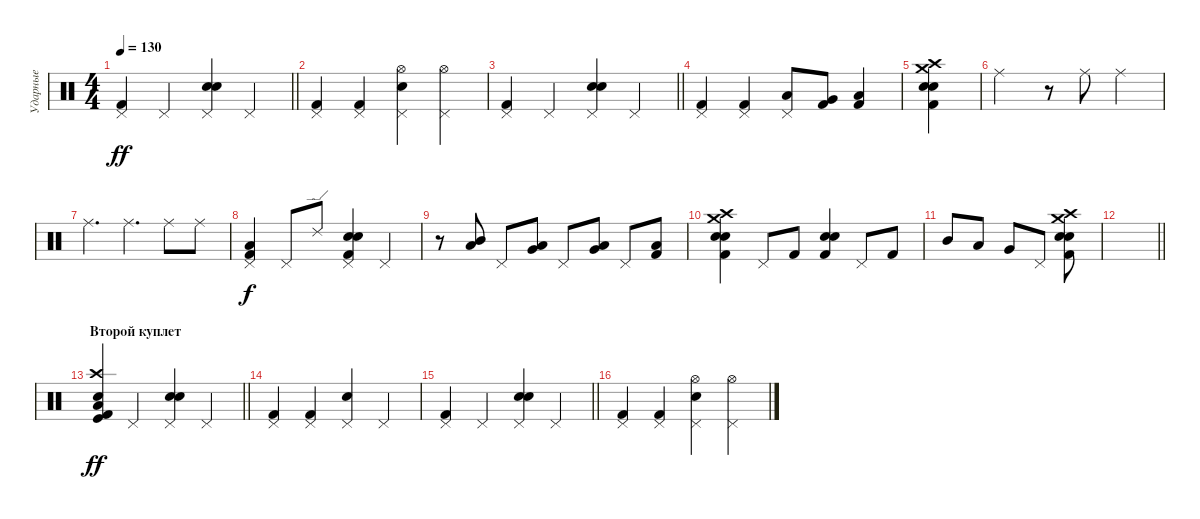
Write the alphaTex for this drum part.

\track ("Ударные" "Ударные") {instrument percussion}
\staff {score}
\articulation defaults
\ts (4 4)
\tempo 130
\clef neutral
\barLineRight lightlight
\ks c
("Kick (hit) 2" "Pedal Hi-Hat (hit)").4{dy ff} "Pedal Hi-Hat (hit)".4 ("Pedal Hi-Hat (hit)" "Snare (hit) 2" "Electric Snare (hit)").4 "Pedal Hi-Hat (hit)".4 |
("Kick (hit) 2" "Pedal Hi-Hat (hit)").4 ("Kick (hit) 2" "Pedal Hi-Hat (hit)").4 ("Pedal Hi-Hat (hit)" "Electric Snare (hit)" "Hi-Hat (open)").4 ("Pedal Hi-Hat (hit)" "Hi-Hat (open)").4 |
\barLineRight lightlight
("Kick (hit) 2" "Pedal Hi-Hat (hit)").4 "Pedal Hi-Hat (hit)".4 ("Pedal Hi-Hat (hit)" "Snare (hit) 2" "Electric Snare (hit)").4 "Pedal Hi-Hat (hit)".4 |
("Kick (hit) 2" "Pedal Hi-Hat (hit)").4 ("Kick (hit) 2" "Pedal Hi-Hat (hit)").4 ("Pedal Hi-Hat (hit)" "Low Tom (hit)").8 ("Kick (hit) 2" "Very Low Tom (hit)").8 ("Kick (hit) 2" "Low Floor Tom (hit)").4 |
("Crash high (hit)" "Kick (hit) 2" "Electric Snare (hit)" "Snare (hit) 2" "Crash medium (hit)").4 |
"Ride (middle)".2 r.8 "Ride (middle)".8 "Ride (middle)".4 |
"Ride (middle)".4{d} "Ride (middle)".4{d} "Ride (middle)".8 "Ride (middle)".8 |
("Low Floor Tom (hit)" "Kick (hit) 2" "Pedal Hi-Hat (hit)").4{dy f} "Pedal Hi-Hat (hit)".8 "Ride (edge) 2".8 ("Electric Snare (hit)" "Snare (hit) 2" "Kick (hit) 2" "Pedal Hi-Hat (hit)").4 "Pedal Hi-Hat (hit)".4 |
r.8 ("Mid Tom (hit)" "Low Tom (hit)").8 "Pedal Hi-Hat (hit)".8 ("Low Tom (hit)" "Very Low Tom (hit)").8 "Pedal Hi-Hat (hit)".8 ("Very Low Tom (hit)" "Low Floor Tom (hit)").8 "Pedal Hi-Hat (hit)".8 ("Kick (hit) 2" "Low Floor Tom (hit)").8 |
("Crash high (hit)" "Electric Snare (hit)" "Snare (hit) 2" "Kick (hit) 2" "Crash medium (hit)").4 "Pedal Hi-Hat (hit)".8 "Kick (hit) 2".8 ("Electric Snare (hit)" "Snare (hit) 2" "Kick (hit) 2").4 "Pedal Hi-Hat (hit)".8 "Kick (hit) 2".8 |
"Mid Tom (hit)".8 "Low Tom (hit)".8 "Very Low Tom (hit)".8 "Pedal Hi-Hat (hit)".8 ("Electric Snare (hit)" "Snare (hit) 2" "Kick (hit) 2" "Crash high (hit)" "Crash medium (hit)").8 |
\barLineRight lightlight
|
\section ("" "Второй куплет")
\barLineRight lightlight
("Crash high (hit)" "Kick (hit) 2" "Low Floor Tom (hit)" "Snare (hit) 2" "Kick (hit)").4{dy ff} "Pedal Hi-Hat (hit)".4 ("Pedal Hi-Hat (hit)" "Snare (hit) 2" "Electric Snare (hit)").4 "Pedal Hi-Hat (hit)".4 |
("Kick (hit) 2" "Pedal Hi-Hat (hit)").4 ("Kick (hit) 2" "Pedal Hi-Hat (hit)").4 ("Pedal Hi-Hat (hit)" "Electric Snare (hit)").4 "Pedal Hi-Hat (hit)".4 |
\barLineRight lightlight
("Kick (hit) 2" "Pedal Hi-Hat (hit)").4 "Pedal Hi-Hat (hit)".4 ("Pedal Hi-Hat (hit)" "Snare (hit) 2" "Electric Snare (hit)").4 "Pedal Hi-Hat (hit)".4 |
("Kick (hit) 2" "Pedal Hi-Hat (hit)").4 ("Kick (hit) 2" "Pedal Hi-Hat (hit)").4 ("Pedal Hi-Hat (hit)" "Electric Snare (hit)" "Hi-Hat (open)").4 ("Pedal Hi-Hat (hit)" "Hi-Hat (open)").4
